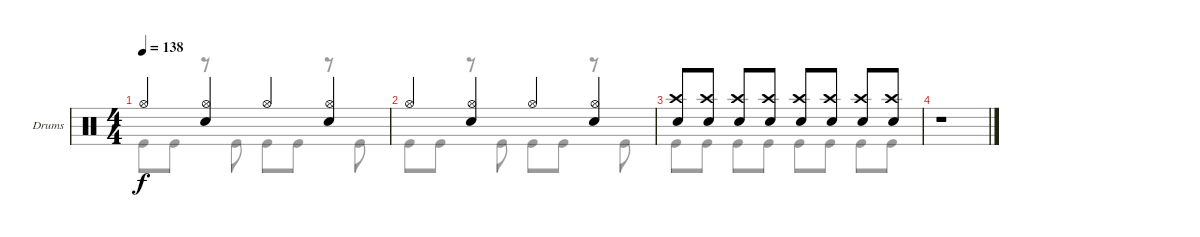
\defaultSystemsLayout 4
\bracketExtendMode groupsimilarinstruments
\firstSystemTrackNameOrientation horizontal
\otherSystemsTrackNameOrientation horizontal
\track ("Drumkit" "Drums") {instrument percussion}
\staff {score}
\articulation defaults
\voice
\ts (4 4)
\tempo 138
\clef neutral
\ks c "Hi-Hat (open)".4{dy f}
("Hi-Hat (open)" "Snare (hit) 2").4 "Hi-Hat (open)".4 ("Hi-Hat (open)" "Snare (hit) 2").4 |
"Hi-Hat (open)".4 ("Hi-Hat (open)" "Snare (hit) 2").4 "Hi-Hat (open)".4 ("Hi-Hat (open)" "Snare (hit) 2").4 |
("Snare (hit) 2" "Crash high (hit)").8 ("Snare (hit) 2" "Crash high (hit)").8 ("Snare (hit) 2" "Crash high (hit)").8 ("Snare (hit) 2" "Crash high (hit)").8 ("Snare (hit) 2" "Crash high (hit)").8 ("Snare (hit) 2" "Crash high (hit)").8 ("Snare (hit) 2" "Crash high (hit)").8 ("Snare (hit) 2" "Crash high (hit)").8 |
r.1
\voice
\clef neutral
\ottava regular
\simile none
\ks c "Kick (hit)".8{dy f} "Kick (hit)".8
r.8 "Kick (hit)".8 "Kick (hit)".8 "Kick (hit)".8 r.8 "Kick (hit)".8 |
"Kick (hit)".8 "Kick (hit)".8 r.8 "Kick (hit)".8 "Kick (hit)".8 "Kick (hit)".8 r.8 "Kick (hit)".8 |
"Kick (hit)".8 "Kick (hit)".8 "Kick (hit)".8 "Kick (hit)".8 "Kick (hit)".8 "Kick (hit)".8 "Kick (hit)".8 "Kick (hit)".8 |
